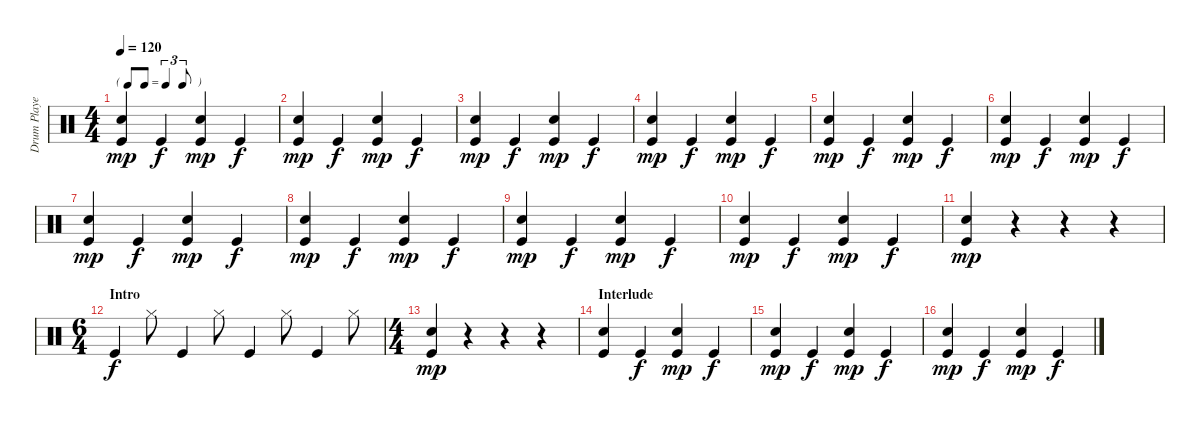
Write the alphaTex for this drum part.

\track ("Drum Player" "Drum Playe") {instrument percussion}
\staff {score}
\articulation defaults
\ts (4 4)
\tf triplet8th
\tempo 120
\clef neutral
\ks c
("Hand Clap (hit)" "Kick (hit)").4{dy mp} "Kick (hit)".4{dy f} ("Hand Clap (hit)" "Kick (hit)").4{dy mp} "Kick (hit)".4{dy f} |
("Hand Clap (hit)" "Kick (hit)").4{dy mp} "Kick (hit)".4{dy f} ("Hand Clap (hit)" "Kick (hit)").4{dy mp} "Kick (hit)".4{dy f} |
("Hand Clap (hit)" "Kick (hit)").4{dy mp} "Kick (hit)".4{dy f} ("Hand Clap (hit)" "Kick (hit)").4{dy mp} "Kick (hit)".4{dy f} |
("Hand Clap (hit)" "Kick (hit)").4{dy mp} "Kick (hit)".4{dy f} ("Hand Clap (hit)" "Kick (hit)").4{dy mp} "Kick (hit)".4{dy f} |
("Hand Clap (hit)" "Kick (hit)").4{dy mp} "Kick (hit)".4{dy f} ("Hand Clap (hit)" "Kick (hit)").4{dy mp} "Kick (hit)".4{dy f} |
("Hand Clap (hit)" "Kick (hit)").4{dy mp} "Kick (hit)".4{dy f} ("Hand Clap (hit)" "Kick (hit)").4{dy mp} "Kick (hit)".4{dy f} |
("Hand Clap (hit)" "Kick (hit)").4{dy mp} "Kick (hit)".4{dy f} ("Hand Clap (hit)" "Kick (hit)").4{dy mp} "Kick (hit)".4{dy f} |
("Hand Clap (hit)" "Kick (hit)").4{dy mp} "Kick (hit)".4{dy f} ("Hand Clap (hit)" "Kick (hit)").4{dy mp} "Kick (hit)".4{dy f} |
("Hand Clap (hit)" "Kick (hit)").4{dy mp} "Kick (hit)".4{dy f} ("Hand Clap (hit)" "Kick (hit)").4{dy mp} "Kick (hit)".4{dy f} |
("Hand Clap (hit)" "Kick (hit)").4{dy mp} "Kick (hit)".4{dy f} ("Hand Clap (hit)" "Kick (hit)").4{dy mp} "Kick (hit)".4{dy f} |
("Hand Clap (hit)" "Kick (hit)").4{dy mp} r.4 r.4 r.4 |
\ts (6 4)
\section ("" "Intro")
"Kick (hit)".4{dy f} "Hi-Hat (closed)".8 "Kick (hit)".4 "Hi-Hat (closed)".8 "Kick (hit)".4 "Hi-Hat (closed)".8 "Kick (hit)".4 "Hi-Hat (closed)".8 |
\ts (4 4)
("Hand Clap (hit)" "Kick (hit)").4{dy mp} r.4 r.4 r.4 |
\section ("" "Interlude")
("Hand Clap (hit)" "Kick (hit)").4 "Kick (hit)".4{dy f} ("Hand Clap (hit)" "Kick (hit)").4{dy mp} "Kick (hit)".4{dy f} |
("Hand Clap (hit)" "Kick (hit)").4{dy mp} "Kick (hit)".4{dy f} ("Hand Clap (hit)" "Kick (hit)").4{dy mp} "Kick (hit)".4{dy f} |
("Hand Clap (hit)" "Kick (hit)").4{dy mp} "Kick (hit)".4{dy f} ("Hand Clap (hit)" "Kick (hit)").4{dy mp} "Kick (hit)".4{dy f}
